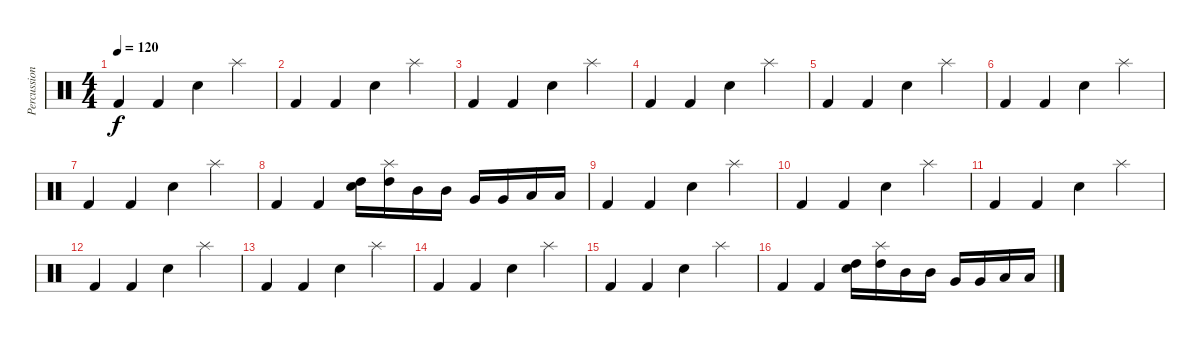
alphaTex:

\track ("Percussion" "Percussion") {instrument percussion}
\staff {score}
\articulation defaults
\ts (4 4)
\tempo 120
\clef neutral
\ks c "Kick (hit) 2".4{dy f} "Kick (hit) 2".4 "Snare (hit) 2".4 "Splash (hit)".4
|
"Kick (hit) 2".4 "Kick (hit) 2".4 "Snare (hit) 2".4 "Splash (hit)".4 |
"Kick (hit) 2".4 "Kick (hit) 2".4 "Snare (hit) 2".4 "Splash (hit)".4 |
"Kick (hit) 2".4 "Kick (hit) 2".4 "Snare (hit) 2".4 "Splash (hit)".4 |
"Kick (hit) 2".4 "Kick (hit) 2".4 "Snare (hit) 2".4 "Splash (hit)".4 |
"Kick (hit) 2".4 "Kick (hit) 2".4 "Snare (hit) 2".4 "Splash (hit)".4 |
"Kick (hit) 2".4 "Kick (hit) 2".4 "Snare (hit) 2".4 "Splash (hit)".4 |
"Kick (hit) 2".4 "Kick (hit) 2".4 ("Snare (hit) 2" "High Tom (hit)").16 ("Splash (hit)" "High Tom (hit)").16 "Mid Tom (hit)".16 "Mid Tom (hit)".16 "Very Low Tom (hit)".16 "Very Low Tom (hit)".16 "Low Tom (hit)".16 "Low Tom (hit)".16 |
"Kick (hit) 2".4 "Kick (hit) 2".4 "Snare (hit) 2".4 "Splash (hit)".4 |
"Kick (hit) 2".4 "Kick (hit) 2".4 "Snare (hit) 2".4 "Splash (hit)".4 |
"Kick (hit) 2".4 "Kick (hit) 2".4 "Snare (hit) 2".4 "Splash (hit)".4 |
"Kick (hit) 2".4 "Kick (hit) 2".4 "Snare (hit) 2".4 "Splash (hit)".4 |
"Kick (hit) 2".4 "Kick (hit) 2".4 "Snare (hit) 2".4 "Splash (hit)".4 |
"Kick (hit) 2".4 "Kick (hit) 2".4 "Snare (hit) 2".4 "Splash (hit)".4 |
"Kick (hit) 2".4 "Kick (hit) 2".4 "Snare (hit) 2".4 "Splash (hit)".4 |
"Kick (hit) 2".4 "Kick (hit) 2".4 ("Snare (hit) 2" "High Tom (hit)").16 ("Splash (hit)" "High Tom (hit)").16 "Mid Tom (hit)".16 "Mid Tom (hit)".16 "Very Low Tom (hit)".16 "Very Low Tom (hit)".16 "Low Tom (hit)".16 "Low Tom (hit)".16
